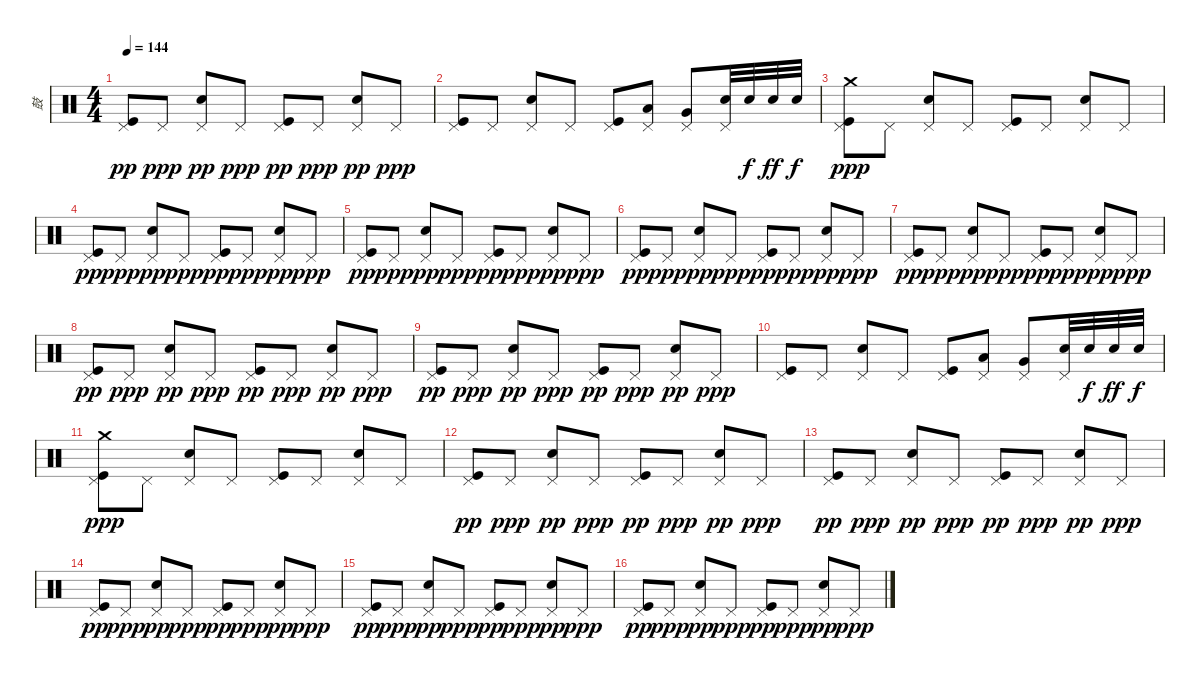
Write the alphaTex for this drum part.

\track ("鼓" "鼓") {instrument percussion}
\staff {score}
\articulation defaults
\ts (4 4)
\tempo 144
\clef neutral
\ks c
("Kick (hit)" "Pedal Hi-Hat (hit)").8{dy pp} "Pedal Hi-Hat (hit)".8{dy ppp} ("Snare (hit) 2" "Pedal Hi-Hat (hit)").8{dy pp} "Pedal Hi-Hat (hit)".8{dy ppp} ("Kick (hit)" "Pedal Hi-Hat (hit)").8{dy pp} "Pedal Hi-Hat (hit)".8{dy ppp} ("Snare (hit) 2" "Pedal Hi-Hat (hit)").8{dy pp} "Pedal Hi-Hat (hit)".8{dy ppp} |
("Kick (hit)" "Pedal Hi-Hat (hit)").8 "Pedal Hi-Hat (hit)".8 ("Snare (hit) 2" "Pedal Hi-Hat (hit)").8 "Pedal Hi-Hat (hit)".8 ("Kick (hit)" "Pedal Hi-Hat (hit)").8 ("Low Tom (hit)" "Pedal Hi-Hat (hit)").8 ("Very Low Tom (hit)" "Pedal Hi-Hat (hit)").8 ("Snare (hit) 2" "Pedal Hi-Hat (hit)").32 "Snare (hit) 2".32{dy f} "Snare (hit) 2".32{dy ff} "Snare (hit) 2".32{dy f} |
("Crash medium (hit)" "Kick (hit)" "Pedal Hi-Hat (hit)").8{dy ppp} "Pedal Hi-Hat (hit)".8 ("Snare (hit) 2" "Pedal Hi-Hat (hit)").8 "Pedal Hi-Hat (hit)".8 ("Kick (hit)" "Pedal Hi-Hat (hit)").8 "Pedal Hi-Hat (hit)".8 ("Snare (hit) 2" "Pedal Hi-Hat (hit)").8 "Pedal Hi-Hat (hit)".8 |
("Kick (hit)" "Pedal Hi-Hat (hit)").8{dy pp} "Pedal Hi-Hat (hit)".8{dy ppp} ("Snare (hit) 2" "Pedal Hi-Hat (hit)").8{dy pp} "Pedal Hi-Hat (hit)".8{dy ppp} ("Kick (hit)" "Pedal Hi-Hat (hit)").8{dy pp} "Pedal Hi-Hat (hit)".8{dy ppp} ("Snare (hit) 2" "Pedal Hi-Hat (hit)").8{dy pp} "Pedal Hi-Hat (hit)".8{dy ppp} |
("Kick (hit)" "Pedal Hi-Hat (hit)").8{dy pp} "Pedal Hi-Hat (hit)".8{dy ppp} ("Snare (hit) 2" "Pedal Hi-Hat (hit)").8{dy pp} "Pedal Hi-Hat (hit)".8{dy ppp} ("Kick (hit)" "Pedal Hi-Hat (hit)").8{dy pp} "Pedal Hi-Hat (hit)".8{dy ppp} ("Snare (hit) 2" "Pedal Hi-Hat (hit)").8{dy pp} "Pedal Hi-Hat (hit)".8{dy ppp} |
("Kick (hit)" "Pedal Hi-Hat (hit)").8{dy pp} "Pedal Hi-Hat (hit)".8{dy ppp} ("Snare (hit) 2" "Pedal Hi-Hat (hit)").8{dy pp} "Pedal Hi-Hat (hit)".8{dy ppp} ("Kick (hit)" "Pedal Hi-Hat (hit)").8{dy pp} "Pedal Hi-Hat (hit)".8{dy ppp} ("Snare (hit) 2" "Pedal Hi-Hat (hit)").8{dy pp} "Pedal Hi-Hat (hit)".8{dy ppp} |
("Kick (hit)" "Pedal Hi-Hat (hit)").8{dy pp} "Pedal Hi-Hat (hit)".8{dy ppp} ("Snare (hit) 2" "Pedal Hi-Hat (hit)").8{dy pp} "Pedal Hi-Hat (hit)".8{dy ppp} ("Kick (hit)" "Pedal Hi-Hat (hit)").8{dy pp} "Pedal Hi-Hat (hit)".8{dy ppp} ("Snare (hit) 2" "Pedal Hi-Hat (hit)").8{dy pp} "Pedal Hi-Hat (hit)".8{dy ppp} |
("Kick (hit)" "Pedal Hi-Hat (hit)").8{dy pp} "Pedal Hi-Hat (hit)".8{dy ppp} ("Snare (hit) 2" "Pedal Hi-Hat (hit)").8{dy pp} "Pedal Hi-Hat (hit)".8{dy ppp} ("Kick (hit)" "Pedal Hi-Hat (hit)").8{dy pp} "Pedal Hi-Hat (hit)".8{dy ppp} ("Snare (hit) 2" "Pedal Hi-Hat (hit)").8{dy pp} "Pedal Hi-Hat (hit)".8{dy ppp} |
("Kick (hit)" "Pedal Hi-Hat (hit)").8{dy pp} "Pedal Hi-Hat (hit)".8{dy ppp} ("Snare (hit) 2" "Pedal Hi-Hat (hit)").8{dy pp} "Pedal Hi-Hat (hit)".8{dy ppp} ("Kick (hit)" "Pedal Hi-Hat (hit)").8{dy pp} "Pedal Hi-Hat (hit)".8{dy ppp} ("Snare (hit) 2" "Pedal Hi-Hat (hit)").8{dy pp} "Pedal Hi-Hat (hit)".8{dy ppp} |
("Kick (hit)" "Pedal Hi-Hat (hit)").8 "Pedal Hi-Hat (hit)".8 ("Snare (hit) 2" "Pedal Hi-Hat (hit)").8 "Pedal Hi-Hat (hit)".8 ("Kick (hit)" "Pedal Hi-Hat (hit)").8 ("Low Tom (hit)" "Pedal Hi-Hat (hit)").8 ("Very Low Tom (hit)" "Pedal Hi-Hat (hit)").8 ("Snare (hit) 2" "Pedal Hi-Hat (hit)").32 "Snare (hit) 2".32{dy f} "Snare (hit) 2".32{dy ff} "Snare (hit) 2".32{dy f} |
("Crash medium (hit)" "Kick (hit)" "Pedal Hi-Hat (hit)").8{dy ppp} "Pedal Hi-Hat (hit)".8 ("Snare (hit) 2" "Pedal Hi-Hat (hit)").8 "Pedal Hi-Hat (hit)".8 ("Kick (hit)" "Pedal Hi-Hat (hit)").8 "Pedal Hi-Hat (hit)".8 ("Snare (hit) 2" "Pedal Hi-Hat (hit)").8 "Pedal Hi-Hat (hit)".8 |
("Kick (hit)" "Pedal Hi-Hat (hit)").8{dy pp} "Pedal Hi-Hat (hit)".8{dy ppp} ("Snare (hit) 2" "Pedal Hi-Hat (hit)").8{dy pp} "Pedal Hi-Hat (hit)".8{dy ppp} ("Kick (hit)" "Pedal Hi-Hat (hit)").8{dy pp} "Pedal Hi-Hat (hit)".8{dy ppp} ("Snare (hit) 2" "Pedal Hi-Hat (hit)").8{dy pp} "Pedal Hi-Hat (hit)".8{dy ppp} |
("Kick (hit)" "Pedal Hi-Hat (hit)").8{dy pp} "Pedal Hi-Hat (hit)".8{dy ppp} ("Snare (hit) 2" "Pedal Hi-Hat (hit)").8{dy pp} "Pedal Hi-Hat (hit)".8{dy ppp} ("Kick (hit)" "Pedal Hi-Hat (hit)").8{dy pp} "Pedal Hi-Hat (hit)".8{dy ppp} ("Snare (hit) 2" "Pedal Hi-Hat (hit)").8{dy pp} "Pedal Hi-Hat (hit)".8{dy ppp} |
("Kick (hit)" "Pedal Hi-Hat (hit)").8{dy pp} "Pedal Hi-Hat (hit)".8{dy ppp} ("Snare (hit) 2" "Pedal Hi-Hat (hit)").8{dy pp} "Pedal Hi-Hat (hit)".8{dy ppp} ("Kick (hit)" "Pedal Hi-Hat (hit)").8{dy pp} "Pedal Hi-Hat (hit)".8{dy ppp} ("Snare (hit) 2" "Pedal Hi-Hat (hit)").8{dy pp} "Pedal Hi-Hat (hit)".8{dy ppp} |
("Kick (hit)" "Pedal Hi-Hat (hit)").8{dy pp} "Pedal Hi-Hat (hit)".8{dy ppp} ("Snare (hit) 2" "Pedal Hi-Hat (hit)").8{dy pp} "Pedal Hi-Hat (hit)".8{dy ppp} ("Kick (hit)" "Pedal Hi-Hat (hit)").8{dy pp} "Pedal Hi-Hat (hit)".8{dy ppp} ("Snare (hit) 2" "Pedal Hi-Hat (hit)").8{dy pp} "Pedal Hi-Hat (hit)".8{dy ppp} |
("Kick (hit)" "Pedal Hi-Hat (hit)").8{dy pp} "Pedal Hi-Hat (hit)".8{dy ppp} ("Snare (hit) 2" "Pedal Hi-Hat (hit)").8{dy pp} "Pedal Hi-Hat (hit)".8{dy ppp} ("Kick (hit)" "Pedal Hi-Hat (hit)").8{dy pp} "Pedal Hi-Hat (hit)".8{dy ppp} ("Snare (hit) 2" "Pedal Hi-Hat (hit)").8{dy pp} "Pedal Hi-Hat (hit)".8{dy ppp}
